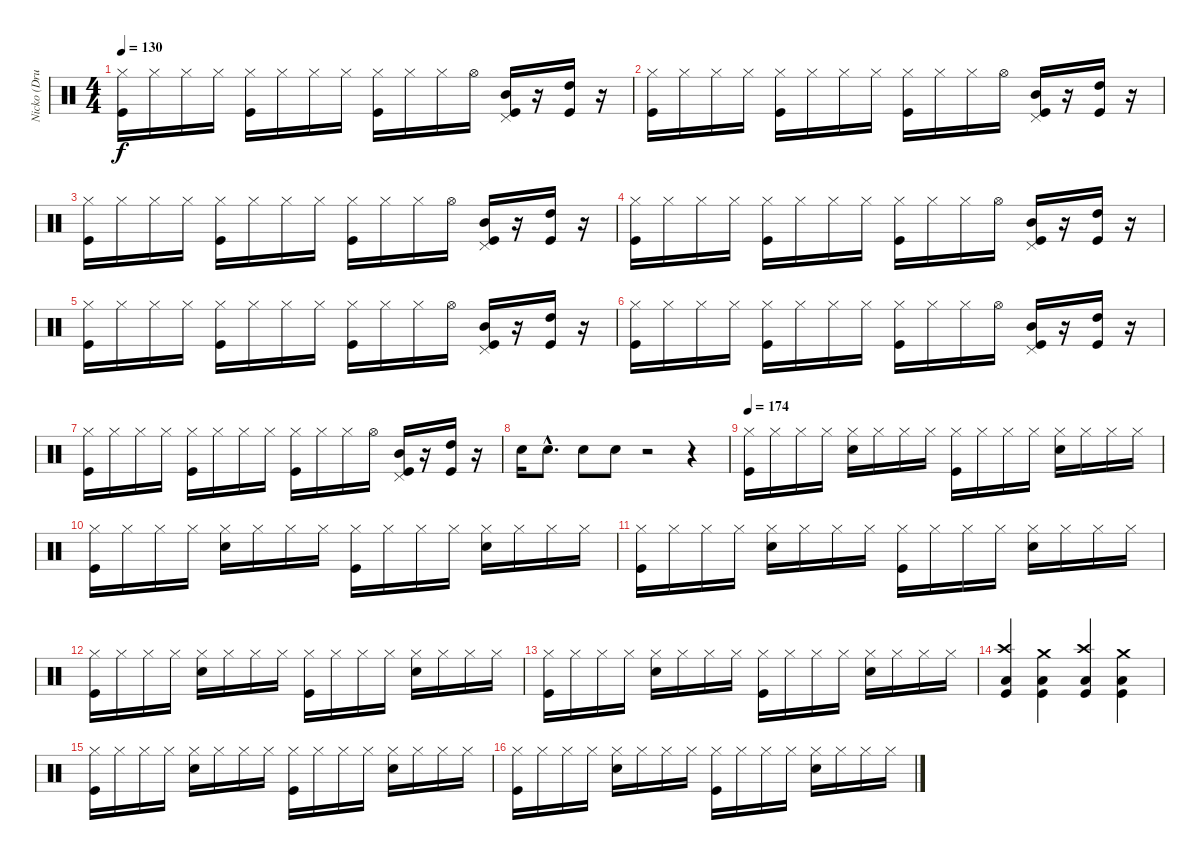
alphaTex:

\track ("Nicko (Drums)" "Nicko (Dru") {instrument percussion}
\staff {score}
\articulation defaults
\ts (4 4)
\tempo 130
\clef neutral
\ks c
("Hi-Hat (closed)" "Kick (hit)").16{dy f} "Hi-Hat (closed)".16 "Hi-Hat (closed)".16 "Hi-Hat (closed)".16 ("Hi-Hat (closed)" "Kick (hit)").16 "Hi-Hat (closed)".16 "Hi-Hat (closed)".16 "Hi-Hat (closed)".16 ("Hi-Hat (closed)" "Kick (hit)").16 "Hi-Hat (closed)".16 "Hi-Hat (closed)".16 "Hi-Hat (open)".16 ("Pedal Hi-Hat (hit)" "Mid Tom (hit)" "Kick (hit)").16 r.16 ("High Tom (hit)" "Kick (hit)").16 r.16 |
("Hi-Hat (closed)" "Kick (hit)").16 "Hi-Hat (closed)".16 "Hi-Hat (closed)".16 "Hi-Hat (closed)".16 ("Hi-Hat (closed)" "Kick (hit)").16 "Hi-Hat (closed)".16 "Hi-Hat (closed)".16 "Hi-Hat (closed)".16 ("Hi-Hat (closed)" "Kick (hit)").16 "Hi-Hat (closed)".16 "Hi-Hat (closed)".16 "Hi-Hat (open)".16 ("Pedal Hi-Hat (hit)" "Mid Tom (hit)" "Kick (hit)").16 r.16 ("High Tom (hit)" "Kick (hit)").16 r.16 |
("Hi-Hat (closed)" "Kick (hit)").16 "Hi-Hat (closed)".16 "Hi-Hat (closed)".16 "Hi-Hat (closed)".16 ("Hi-Hat (closed)" "Kick (hit)").16 "Hi-Hat (closed)".16 "Hi-Hat (closed)".16 "Hi-Hat (closed)".16 ("Hi-Hat (closed)" "Kick (hit)").16 "Hi-Hat (closed)".16 "Hi-Hat (closed)".16 "Hi-Hat (open)".16 ("Pedal Hi-Hat (hit)" "Mid Tom (hit)" "Kick (hit)").16 r.16 ("High Tom (hit)" "Kick (hit)").16 r.16 |
("Hi-Hat (closed)" "Kick (hit)").16 "Hi-Hat (closed)".16 "Hi-Hat (closed)".16 "Hi-Hat (closed)".16 ("Hi-Hat (closed)" "Kick (hit)").16 "Hi-Hat (closed)".16 "Hi-Hat (closed)".16 "Hi-Hat (closed)".16 ("Hi-Hat (closed)" "Kick (hit)").16 "Hi-Hat (closed)".16 "Hi-Hat (closed)".16 "Hi-Hat (open)".16 ("Pedal Hi-Hat (hit)" "Mid Tom (hit)" "Kick (hit)").16 r.16 ("High Tom (hit)" "Kick (hit)").16 r.16 |
("Hi-Hat (closed)" "Kick (hit)").16 "Hi-Hat (closed)".16 "Hi-Hat (closed)".16 "Hi-Hat (closed)".16 ("Hi-Hat (closed)" "Kick (hit)").16 "Hi-Hat (closed)".16 "Hi-Hat (closed)".16 "Hi-Hat (closed)".16 ("Hi-Hat (closed)" "Kick (hit)").16 "Hi-Hat (closed)".16 "Hi-Hat (closed)".16 "Hi-Hat (open)".16 ("Pedal Hi-Hat (hit)" "Mid Tom (hit)" "Kick (hit)").16 r.16 ("High Tom (hit)" "Kick (hit)").16 r.16 |
("Hi-Hat (closed)" "Kick (hit)").16 "Hi-Hat (closed)".16 "Hi-Hat (closed)".16 "Hi-Hat (closed)".16 ("Hi-Hat (closed)" "Kick (hit)").16 "Hi-Hat (closed)".16 "Hi-Hat (closed)".16 "Hi-Hat (closed)".16 ("Hi-Hat (closed)" "Kick (hit)").16 "Hi-Hat (closed)".16 "Hi-Hat (closed)".16 "Hi-Hat (open)".16 ("Pedal Hi-Hat (hit)" "Mid Tom (hit)" "Kick (hit)").16 r.16 ("High Tom (hit)" "Kick (hit)").16 r.16 |
("Hi-Hat (closed)" "Kick (hit)").16 "Hi-Hat (closed)".16 "Hi-Hat (closed)".16 "Hi-Hat (closed)".16 ("Hi-Hat (closed)" "Kick (hit)").16 "Hi-Hat (closed)".16 "Hi-Hat (closed)".16 "Hi-Hat (closed)".16 ("Hi-Hat (closed)" "Kick (hit)").16 "Hi-Hat (closed)".16 "Hi-Hat (closed)".16 "Hi-Hat (open)".16 ("Pedal Hi-Hat (hit)" "Mid Tom (hit)" "Kick (hit)").16 r.16 ("High Tom (hit)" "Kick (hit)").16 r.16 |
"Snare (hit) 2".16 "Snare (hit) 2"{hac}.8{d} "Snare (hit) 2".8 "Snare (hit) 2".8 r.2 r.4 |
\tempo 174
("Hi-Hat (closed)" "Kick (hit)").16 "Hi-Hat (closed)".16 "Hi-Hat (closed)".16 "Hi-Hat (closed)".16 ("Hi-Hat (closed)" "Electric Snare (hit)").16 "Hi-Hat (closed)".16 "Hi-Hat (closed)".16 "Hi-Hat (closed)".16 ("Hi-Hat (closed)" "Kick (hit)").16 "Hi-Hat (closed)".16 "Hi-Hat (closed)".16 "Hi-Hat (closed)".16 ("Hi-Hat (closed)" "Electric Snare (hit)").16 "Hi-Hat (closed)".16 "Hi-Hat (closed)".16 "Hi-Hat (closed)".16 |
("Hi-Hat (closed)" "Kick (hit)").16 "Hi-Hat (closed)".16 "Hi-Hat (closed)".16 "Hi-Hat (closed)".16 ("Hi-Hat (closed)" "Electric Snare (hit)").16 "Hi-Hat (closed)".16 "Hi-Hat (closed)".16 "Hi-Hat (closed)".16 ("Hi-Hat (closed)" "Kick (hit)").16 "Hi-Hat (closed)".16 "Hi-Hat (closed)".16 "Hi-Hat (closed)".16 ("Hi-Hat (closed)" "Electric Snare (hit)").16 "Hi-Hat (closed)".16 "Hi-Hat (closed)".16 "Hi-Hat (closed)".16 |
("Hi-Hat (closed)" "Kick (hit)").16 "Hi-Hat (closed)".16 "Hi-Hat (closed)".16 "Hi-Hat (closed)".16 ("Hi-Hat (closed)" "Electric Snare (hit)").16 "Hi-Hat (closed)".16 "Hi-Hat (closed)".16 "Hi-Hat (closed)".16 ("Hi-Hat (closed)" "Kick (hit)").16 "Hi-Hat (closed)".16 "Hi-Hat (closed)".16 "Hi-Hat (closed)".16 ("Hi-Hat (closed)" "Electric Snare (hit)").16 "Hi-Hat (closed)".16 "Hi-Hat (closed)".16 "Hi-Hat (closed)".16 |
("Hi-Hat (closed)" "Kick (hit)").16 "Hi-Hat (closed)".16 "Hi-Hat (closed)".16 "Hi-Hat (closed)".16 ("Hi-Hat (closed)" "Electric Snare (hit)").16 "Hi-Hat (closed)".16 "Hi-Hat (closed)".16 "Hi-Hat (closed)".16 ("Hi-Hat (closed)" "Kick (hit)").16 "Hi-Hat (closed)".16 "Hi-Hat (closed)".16 "Hi-Hat (closed)".16 ("Hi-Hat (closed)" "Electric Snare (hit)").16 "Hi-Hat (closed)".16 "Hi-Hat (closed)".16 "Hi-Hat (closed)".16 |
("Hi-Hat (closed)" "Kick (hit)").16 "Hi-Hat (closed)".16 "Hi-Hat (closed)".16 "Hi-Hat (closed)".16 ("Hi-Hat (closed)" "Electric Snare (hit)").16 "Hi-Hat (closed)".16 "Hi-Hat (closed)".16 "Hi-Hat (closed)".16 ("Hi-Hat (closed)" "Kick (hit)").16 "Hi-Hat (closed)".16 "Hi-Hat (closed)".16 "Hi-Hat (closed)".16 ("Hi-Hat (closed)" "Electric Snare (hit)").16 "Hi-Hat (closed)".16 "Hi-Hat (closed)".16 "Hi-Hat (closed)".16 |
("Crash high (hit)" "Low Tom (hit)" "Kick (hit)").4 ("Crash medium (hit)" "Low Tom (hit)" "Kick (hit)").4 ("Crash high (hit)" "Low Tom (hit)" "Kick (hit)").4 ("Crash medium (hit)" "Low Tom (hit)" "Kick (hit)").4 |
("Hi-Hat (closed)" "Kick (hit)").16 "Hi-Hat (closed)".16 "Hi-Hat (closed)".16 "Hi-Hat (closed)".16 ("Hi-Hat (closed)" "Electric Snare (hit)").16 "Hi-Hat (closed)".16 "Hi-Hat (closed)".16 "Hi-Hat (closed)".16 ("Hi-Hat (closed)" "Kick (hit)").16 "Hi-Hat (closed)".16 "Hi-Hat (closed)".16 "Hi-Hat (closed)".16 ("Hi-Hat (closed)" "Electric Snare (hit)").16 "Hi-Hat (closed)".16 "Hi-Hat (closed)".16 "Hi-Hat (closed)".16 |
("Hi-Hat (closed)" "Kick (hit)").16 "Hi-Hat (closed)".16 "Hi-Hat (closed)".16 "Hi-Hat (closed)".16 ("Hi-Hat (closed)" "Electric Snare (hit)").16 "Hi-Hat (closed)".16 "Hi-Hat (closed)".16 "Hi-Hat (closed)".16 ("Hi-Hat (closed)" "Kick (hit)").16 "Hi-Hat (closed)".16 "Hi-Hat (closed)".16 "Hi-Hat (closed)".16 ("Hi-Hat (closed)" "Electric Snare (hit)").16 "Hi-Hat (closed)".16 "Hi-Hat (closed)".16 "Hi-Hat (closed)".16
